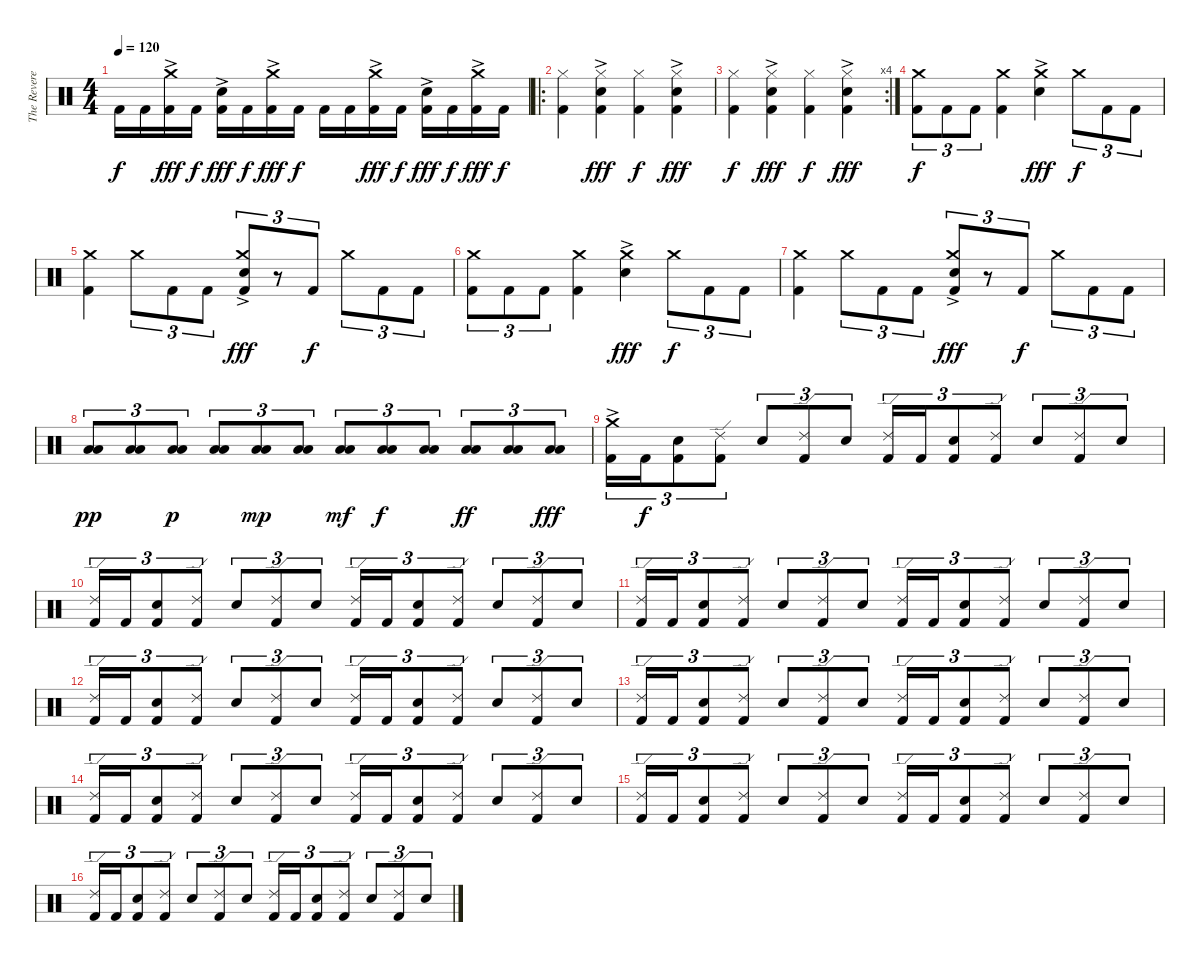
\track ("The Reverend" "The Revere") {instrument percussion}
\staff {score}
\articulation defaults
\ts (4 4)
\tempo 120
\clef neutral
\ks c "Kick (hit) 2".16{dy f} "Kick (hit) 2".16
("Crash medium (hit)"{ac} "Kick (hit) 2").16{dy fff} "Kick (hit) 2".16{dy f} ("Electric Snare (hit)"{ac} "Kick (hit) 2").16{dy fff} "Kick (hit) 2".16{dy f} ("Crash medium (hit)"{ac} "Kick (hit) 2").16{dy fff} "Kick (hit) 2".16{dy f} "Kick (hit) 2".16 "Kick (hit) 2".16 ("Crash medium (hit)"{ac} "Kick (hit) 2").16{dy fff} "Kick (hit) 2".16{dy f} ("Electric Snare (hit)"{ac} "Kick (hit) 2").16{dy fff} "Kick (hit) 2".16{dy f} ("Crash medium (hit)"{ac} "Kick (hit) 2").16{dy fff} "Kick (hit) 2".16{dy f} |
\ro
("Hi-Hat (closed)" "Kick (hit) 2").4 ("Hi-Hat (closed)" "Electric Snare (hit)"{ac} "Kick (hit) 2").4{dy fff} ("Hi-Hat (closed)" "Kick (hit) 2").4{dy f} ("Hi-Hat (closed)" "Electric Snare (hit)"{ac} "Kick (hit) 2").4{dy fff} |
\rc 4
("Hi-Hat (closed)" "Kick (hit) 2").4{dy f} ("Hi-Hat (closed)" "Electric Snare (hit)"{ac} "Kick (hit) 2").4{dy fff} ("Hi-Hat (closed)" "Kick (hit) 2").4{dy f} ("Hi-Hat (closed)" "Electric Snare (hit)"{ac} "Kick (hit) 2").4{dy fff} |
("Crash medium (hit)" "Kick (hit) 2").8{tu (3 2) dy f} "Kick (hit) 2".8{tu (3 2)} "Kick (hit) 2".8{tu (3 2)} ("Crash medium (hit)" "Kick (hit) 2").4 ("Crash medium (hit)" "Electric Snare (hit)"{ac}).4{dy fff} "Crash medium (hit)".8{tu (3 2) dy f} "Kick (hit) 2".8{tu (3 2)} "Kick (hit) 2".8{tu (3 2)} |
("Crash medium (hit)" "Kick (hit) 2").4 "Crash medium (hit)".8{tu (3 2)} "Kick (hit) 2".8{tu (3 2)} "Kick (hit) 2".8{tu (3 2)} ("Crash medium (hit)" "Electric Snare (hit)"{ac} "Kick (hit) 2").8{tu (3 2) dy fff} r.8{tu (3 2)} "Kick (hit) 2".8{tu (3 2) dy f} "Crash medium (hit)".8{tu (3 2)} "Kick (hit) 2".8{tu (3 2)} "Kick (hit) 2".8{tu (3 2)} |
("Crash medium (hit)" "Kick (hit) 2").8{tu (3 2)} "Kick (hit) 2".8{tu (3 2)} "Kick (hit) 2".8{tu (3 2)} ("Crash medium (hit)" "Kick (hit) 2").4 ("Crash medium (hit)" "Electric Snare (hit)"{ac}).4{dy fff} "Crash medium (hit)".8{tu (3 2) dy f} "Kick (hit) 2".8{tu (3 2)} "Kick (hit) 2".8{tu (3 2)} |
("Crash medium (hit)" "Kick (hit) 2").4 "Crash medium (hit)".8{tu (3 2)} "Kick (hit) 2".8{tu (3 2)} "Kick (hit) 2".8{tu (3 2)} ("Crash medium (hit)" "Electric Snare (hit)"{ac} "Kick (hit) 2").8{tu (3 2) dy fff} r.8{tu (3 2)} "Kick (hit) 2".8{tu (3 2) dy f} "Crash medium (hit)".8{tu (3 2)} "Kick (hit) 2".8{tu (3 2)} "Kick (hit) 2".8{tu (3 2)} |
("Low Tom (hit)" "Low Floor Tom (hit)").8{tu (3 2) dy pp} ("Low Tom (hit)" "Low Floor Tom (hit)").8{tu (3 2)} ("Low Tom (hit)" "Low Floor Tom (hit)").8{tu (3 2) dy p} ("Low Tom (hit)" "Low Floor Tom (hit)").8{tu (3 2)} ("Low Tom (hit)" "Low Floor Tom (hit)").8{tu (3 2) dy mp} ("Low Tom (hit)" "Low Floor Tom (hit)").8{tu (3 2)} ("Low Tom (hit)" "Low Floor Tom (hit)").8{tu (3 2) dy mf} ("Low Tom (hit)" "Low Floor Tom (hit)").8{tu (3 2) dy f} ("Low Tom (hit)" "Low Floor Tom (hit)").8{tu (3 2)} ("Low Tom (hit)" "Low Floor Tom (hit)").8{tu (3 2) dy ff} ("Low Tom (hit)" "Low Floor Tom (hit)").8{tu (3 2)} ("Low Tom (hit)" "Low Floor Tom (hit)").8{tu (3 2) dy fff} |
("Crash medium (hit)"{ac} "Kick (hit) 2").16{tu (3 2)} "Kick (hit) 2".16{tu (3 2) dy f} ("Electric Snare (hit)" "Kick (hit) 2").8{tu (3 2)} ("Ride (edge) 2" "Kick (hit) 2").8{tu (3 2)} "Electric Snare (hit)".8{tu (3 2)} ("Ride (edge) 2" "Kick (hit) 2").8{tu (3 2)} "Electric Snare (hit)".8{tu (3 2)} ("Ride (edge) 2" "Kick (hit) 2").16{tu (3 2)} "Kick (hit) 2".16{tu (3 2)} ("Electric Snare (hit)" "Kick (hit) 2").8{tu (3 2)} ("Ride (edge) 2" "Kick (hit) 2").8{tu (3 2)} "Electric Snare (hit)".8{tu (3 2)} ("Ride (edge) 2" "Kick (hit) 2").8{tu (3 2)} "Electric Snare (hit)".8{tu (3 2)} |
("Ride (edge) 2" "Kick (hit) 2").16{tu (3 2)} "Kick (hit) 2".16{tu (3 2)} ("Electric Snare (hit)" "Kick (hit) 2").8{tu (3 2)} ("Ride (edge) 2" "Kick (hit) 2").8{tu (3 2)} "Electric Snare (hit)".8{tu (3 2)} ("Ride (edge) 2" "Kick (hit) 2").8{tu (3 2)} "Electric Snare (hit)".8{tu (3 2)} ("Ride (edge) 2" "Kick (hit) 2").16{tu (3 2)} "Kick (hit) 2".16{tu (3 2)} ("Electric Snare (hit)" "Kick (hit) 2").8{tu (3 2)} ("Ride (edge) 2" "Kick (hit) 2").8{tu (3 2)} "Electric Snare (hit)".8{tu (3 2)} ("Ride (edge) 2" "Kick (hit) 2").8{tu (3 2)} "Electric Snare (hit)".8{tu (3 2)} |
("Ride (edge) 2" "Kick (hit) 2").16{tu (3 2)} "Kick (hit) 2".16{tu (3 2)} ("Electric Snare (hit)" "Kick (hit) 2").8{tu (3 2)} ("Ride (edge) 2" "Kick (hit) 2").8{tu (3 2)} "Electric Snare (hit)".8{tu (3 2)} ("Ride (edge) 2" "Kick (hit) 2").8{tu (3 2)} "Electric Snare (hit)".8{tu (3 2)} ("Ride (edge) 2" "Kick (hit) 2").16{tu (3 2)} "Kick (hit) 2".16{tu (3 2)} ("Electric Snare (hit)" "Kick (hit) 2").8{tu (3 2)} ("Ride (edge) 2" "Kick (hit) 2").8{tu (3 2)} "Electric Snare (hit)".8{tu (3 2)} ("Ride (edge) 2" "Kick (hit) 2").8{tu (3 2)} "Electric Snare (hit)".8{tu (3 2)} |
("Ride (edge) 2" "Kick (hit) 2").16{tu (3 2)} "Kick (hit) 2".16{tu (3 2)} ("Electric Snare (hit)" "Kick (hit) 2").8{tu (3 2)} ("Ride (edge) 2" "Kick (hit) 2").8{tu (3 2)} "Electric Snare (hit)".8{tu (3 2)} ("Ride (edge) 2" "Kick (hit) 2").8{tu (3 2)} "Electric Snare (hit)".8{tu (3 2)} ("Ride (edge) 2" "Kick (hit) 2").16{tu (3 2)} "Kick (hit) 2".16{tu (3 2)} ("Electric Snare (hit)" "Kick (hit) 2").8{tu (3 2)} ("Ride (edge) 2" "Kick (hit) 2").8{tu (3 2)} "Electric Snare (hit)".8{tu (3 2)} ("Ride (edge) 2" "Kick (hit) 2").8{tu (3 2)} "Electric Snare (hit)".8{tu (3 2)} |
("Ride (edge) 2" "Kick (hit) 2").16{tu (3 2)} "Kick (hit) 2".16{tu (3 2)} ("Electric Snare (hit)" "Kick (hit) 2").8{tu (3 2)} ("Ride (edge) 2" "Kick (hit) 2").8{tu (3 2)} "Electric Snare (hit)".8{tu (3 2)} ("Ride (edge) 2" "Kick (hit) 2").8{tu (3 2)} "Electric Snare (hit)".8{tu (3 2)} ("Ride (edge) 2" "Kick (hit) 2").16{tu (3 2)} "Kick (hit) 2".16{tu (3 2)} ("Electric Snare (hit)" "Kick (hit) 2").8{tu (3 2)} ("Ride (edge) 2" "Kick (hit) 2").8{tu (3 2)} "Electric Snare (hit)".8{tu (3 2)} ("Ride (edge) 2" "Kick (hit) 2").8{tu (3 2)} "Electric Snare (hit)".8{tu (3 2)} |
("Ride (edge) 2" "Kick (hit) 2").16{tu (3 2)} "Kick (hit) 2".16{tu (3 2)} ("Electric Snare (hit)" "Kick (hit) 2").8{tu (3 2)} ("Ride (edge) 2" "Kick (hit) 2").8{tu (3 2)} "Electric Snare (hit)".8{tu (3 2)} ("Ride (edge) 2" "Kick (hit) 2").8{tu (3 2)} "Electric Snare (hit)".8{tu (3 2)} ("Ride (edge) 2" "Kick (hit) 2").16{tu (3 2)} "Kick (hit) 2".16{tu (3 2)} ("Electric Snare (hit)" "Kick (hit) 2").8{tu (3 2)} ("Ride (edge) 2" "Kick (hit) 2").8{tu (3 2)} "Electric Snare (hit)".8{tu (3 2)} ("Ride (edge) 2" "Kick (hit) 2").8{tu (3 2)} "Electric Snare (hit)".8{tu (3 2)} |
("Ride (edge) 2" "Kick (hit) 2").16{tu (3 2)} "Kick (hit) 2".16{tu (3 2)} ("Electric Snare (hit)" "Kick (hit) 2").8{tu (3 2)} ("Ride (edge) 2" "Kick (hit) 2").8{tu (3 2)} "Electric Snare (hit)".8{tu (3 2)} ("Ride (edge) 2" "Kick (hit) 2").8{tu (3 2)} "Electric Snare (hit)".8{tu (3 2)} ("Ride (edge) 2" "Kick (hit) 2").16{tu (3 2)} "Kick (hit) 2".16{tu (3 2)} ("Electric Snare (hit)" "Kick (hit) 2").8{tu (3 2)} ("Ride (edge) 2" "Kick (hit) 2").8{tu (3 2)} "Electric Snare (hit)".8{tu (3 2)} ("Ride (edge) 2" "Kick (hit) 2").8{tu (3 2)} "Electric Snare (hit)".8{tu (3 2)} |
("Ride (edge) 2" "Kick (hit) 2").16{tu (3 2)} "Kick (hit) 2".16{tu (3 2)} ("Electric Snare (hit)" "Kick (hit) 2").8{tu (3 2)} ("Ride (edge) 2" "Kick (hit) 2").8{tu (3 2)} "Electric Snare (hit)".8{tu (3 2)} ("Ride (edge) 2" "Kick (hit) 2").8{tu (3 2)} "Electric Snare (hit)".8{tu (3 2)} ("Ride (edge) 2" "Kick (hit) 2").16{tu (3 2)} "Kick (hit) 2".16{tu (3 2)} ("Electric Snare (hit)" "Kick (hit) 2").8{tu (3 2)} ("Ride (edge) 2" "Kick (hit) 2").8{tu (3 2)} "Electric Snare (hit)".8{tu (3 2)} ("Ride (edge) 2" "Kick (hit) 2").8{tu (3 2)} "Electric Snare (hit)".8{tu (3 2)}
